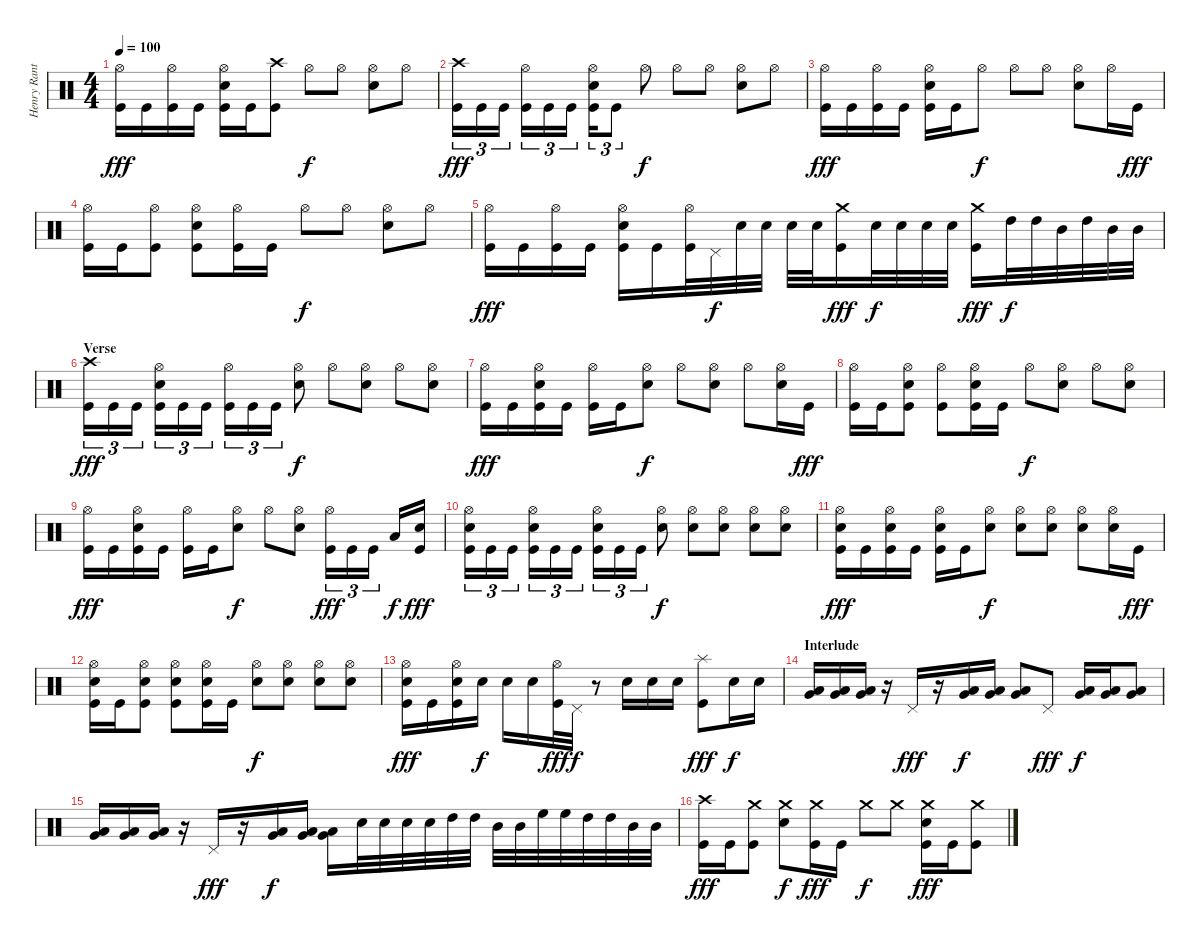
\track ("Henry Ranta" "Henry Rant") {instrument percussion}
\staff {score}
\articulation defaults
\ts (4 4)
\tempo 100
\clef neutral
\ks c
("Hi-Hat (open)" "Kick (hit)").16{dy fff} "Kick (hit)".16 ("Hi-Hat (open)" "Kick (hit)").16 "Kick (hit)".16 ("Hi-Hat (open)" "Electric Snare (hit)" "Kick (hit)").16 "Kick (hit)".16 ("Crash high (hit)" "Kick (hit)").8 "Hi-Hat (open)".8{dy f} "Hi-Hat (open)".8 ("Hi-Hat (open)" "Electric Snare (hit)").8 "Hi-Hat (open)".8 |
("Crash high (hit)" "Kick (hit)").16{tu (3 2) dy fff} "Kick (hit)".16{tu (3 2)} "Kick (hit)".16{tu (3 2)} ("Hi-Hat (open)" "Kick (hit)").16{tu (3 2)} "Kick (hit)".16{tu (3 2)} "Kick (hit)".16{tu (3 2)} ("Hi-Hat (open)" "Electric Snare (hit)" "Kick (hit)").16{tu (3 2)} "Kick (hit)".8{tu (3 2)} "Hi-Hat (open)".8{dy f} "Hi-Hat (open)".8 "Hi-Hat (open)".8 ("Hi-Hat (open)" "Electric Snare (hit)").8 "Hi-Hat (open)".8 |
("Hi-Hat (open)" "Kick (hit)").16{dy fff} "Kick (hit)".16 ("Hi-Hat (open)" "Kick (hit)").16 "Kick (hit)".16 ("Hi-Hat (open)" "Electric Snare (hit)" "Kick (hit)").16 "Kick (hit)".16 "Hi-Hat (open)".8{dy f} "Hi-Hat (open)".8 "Hi-Hat (open)".8 ("Hi-Hat (open)" "Electric Snare (hit)").8 "Hi-Hat (open)".16 "Kick (hit)".16{dy fff} |
("Hi-Hat (open)" "Kick (hit)").16 "Kick (hit)".16 ("Hi-Hat (open)" "Kick (hit)").8 ("Hi-Hat (open)" "Electric Snare (hit)" "Kick (hit)").8 ("Hi-Hat (open)" "Kick (hit)").16 "Kick (hit)".16 "Hi-Hat (open)".8{dy f} "Hi-Hat (open)".8 ("Hi-Hat (open)" "Electric Snare (hit)").8 "Hi-Hat (open)".8 |
("Hi-Hat (open)" "Kick (hit)").16{dy fff} "Kick (hit)".16 ("Hi-Hat (open)" "Kick (hit)").16 "Kick (hit)".16 ("Hi-Hat (open)" "Electric Snare (hit)" "Kick (hit)").16 "Kick (hit)".16 ("Hi-Hat (open)" "Kick (hit)").32 "Pedal Hi-Hat (hit)".32{dy f} "Electric Snare (hit)".32 "Electric Snare (hit)".32 "Electric Snare (hit)".32 "Electric Snare (hit)".32 ("Crash medium (hit)" "Kick (hit)").16{dy fff} "Electric Snare (hit)".32{dy f} "Electric Snare (hit)".32 "Electric Snare (hit)".32 "Electric Snare (hit)".32 ("Crash medium (hit)" "Kick (hit)").16{dy fff} "High Tom (hit)".32{dy f} "High Tom (hit)".32 "Mid Tom (hit)".32 "High Tom (hit)".32 "Mid Tom (hit)".32 "Mid Tom (hit)".32 |
\section ("" "Verse")
("Crash high (hit)" "Kick (hit)").16{tu (3 2) dy fff} "Kick (hit)".16{tu (3 2)} "Kick (hit)".16{tu (3 2)} ("Hi-Hat (open)" "Electric Snare (hit)" "Kick (hit)").16{tu (3 2)} "Kick (hit)".16{tu (3 2)} "Kick (hit)".16{tu (3 2)} ("Hi-Hat (open)" "Kick (hit)").16{tu (3 2)} "Kick (hit)".16{tu (3 2)} "Kick (hit)".16{tu (3 2)} ("Hi-Hat (open)" "Electric Snare (hit)").8{dy f} "Hi-Hat (open)".8 ("Hi-Hat (open)" "Electric Snare (hit)").8 "Hi-Hat (open)".8 ("Hi-Hat (open)" "Electric Snare (hit)").8 |
("Hi-Hat (open)" "Kick (hit)").16{dy fff} "Kick (hit)".16 ("Hi-Hat (open)" "Electric Snare (hit)" "Kick (hit)").16 "Kick (hit)".16 ("Hi-Hat (open)" "Kick (hit)").16 "Kick (hit)".16 ("Hi-Hat (open)" "Electric Snare (hit)").8{dy f} "Hi-Hat (open)".8 ("Hi-Hat (open)" "Electric Snare (hit)").8 "Hi-Hat (open)".8 ("Hi-Hat (open)" "Electric Snare (hit)").16 "Kick (hit)".16{dy fff} |
("Hi-Hat (open)" "Kick (hit)").16 "Kick (hit)".16 ("Hi-Hat (open)" "Electric Snare (hit)" "Kick (hit)").8 ("Hi-Hat (open)" "Kick (hit)").8 ("Hi-Hat (open)" "Electric Snare (hit)" "Kick (hit)").16 "Kick (hit)".16 "Hi-Hat (open)".8{dy f} ("Hi-Hat (open)" "Electric Snare (hit)").8 "Hi-Hat (open)".8 ("Hi-Hat (open)" "Electric Snare (hit)").8 |
("Hi-Hat (open)" "Kick (hit)").16{dy fff} "Kick (hit)".16 ("Hi-Hat (open)" "Electric Snare (hit)" "Kick (hit)").16 "Kick (hit)".16 ("Hi-Hat (open)" "Kick (hit)").16 "Kick (hit)".16 ("Hi-Hat (open)" "Electric Snare (hit)").8{dy f} "Hi-Hat (open)".8 ("Hi-Hat (open)" "Electric Snare (hit)").8 ("Hi-Hat (open)" "Kick (hit)").16{tu (3 2) dy fff} "Kick (hit)".16{tu (3 2)} "Kick (hit)".16{tu (3 2)} "Low Floor Tom (hit)".16{dy f} ("Electric Snare (hit)" "Kick (hit)").16{dy fff} |
("Hi-Hat (open)" "Electric Snare (hit)" "Kick (hit)").16{tu (3 2)} "Kick (hit)".16{tu (3 2)} "Kick (hit)".16{tu (3 2)} ("Hi-Hat (open)" "Electric Snare (hit)" "Kick (hit)").16{tu (3 2)} "Kick (hit)".16{tu (3 2)} "Kick (hit)".16{tu (3 2)} ("Hi-Hat (open)" "Electric Snare (hit)" "Kick (hit)").16{tu (3 2)} "Kick (hit)".16{tu (3 2)} "Kick (hit)".16{tu (3 2)} ("Hi-Hat (open)" "Electric Snare (hit)").8{dy f} ("Hi-Hat (open)" "Electric Snare (hit)").8 ("Hi-Hat (open)" "Electric Snare (hit)").8 ("Hi-Hat (open)" "Electric Snare (hit)").8 ("Hi-Hat (open)" "Electric Snare (hit)").8 |
("Hi-Hat (open)" "Electric Snare (hit)" "Kick (hit)").16{dy fff} "Kick (hit)".16 ("Hi-Hat (open)" "Electric Snare (hit)" "Kick (hit)").16 "Kick (hit)".16 ("Hi-Hat (open)" "Electric Snare (hit)" "Kick (hit)").16 "Kick (hit)".16 ("Hi-Hat (open)" "Electric Snare (hit)").8{dy f} ("Hi-Hat (open)" "Electric Snare (hit)").8 ("Hi-Hat (open)" "Electric Snare (hit)").8 ("Hi-Hat (open)" "Electric Snare (hit)").8 ("Hi-Hat (open)" "Electric Snare (hit)").16 "Kick (hit)".16{dy fff} |
("Hi-Hat (open)" "Electric Snare (hit)" "Kick (hit)").16 "Kick (hit)".16 ("Hi-Hat (open)" "Electric Snare (hit)" "Kick (hit)").8 ("Hi-Hat (open)" "Electric Snare (hit)" "Kick (hit)").8 ("Hi-Hat (open)" "Electric Snare (hit)" "Kick (hit)").16 "Kick (hit)".16 ("Hi-Hat (open)" "Electric Snare (hit)").8{dy f} ("Hi-Hat (open)" "Electric Snare (hit)").8 ("Hi-Hat (open)" "Electric Snare (hit)").8 ("Hi-Hat (open)" "Electric Snare (hit)").8 |
("Hi-Hat (open)" "Electric Snare (hit)" "Kick (hit)").16{dy fff} "Kick (hit)".16 ("Hi-Hat (open)" "Electric Snare (hit)" "Kick (hit)").16 "Electric Snare (hit)".16{dy f} "Electric Snare (hit)".16 "Electric Snare (hit)".16 ("Hi-Hat (open)" "Kick (hit)").32{dy fff} "Pedal Hi-Hat (hit)".32{dy f} r.8 "Electric Snare (hit)".16 "Electric Snare (hit)".16 "Electric Snare (hit)".16 ("Splash (hit)" "Kick (hit)").8{dy fff} "Electric Snare (hit)".16{dy f} "Electric Snare (hit)".16 |
\section ("" "Interlude")
("Very Low Tom (hit)" "Low Floor Tom (hit)").16 ("Very Low Tom (hit)" "Low Floor Tom (hit)").16 ("Very Low Tom (hit)" "Low Floor Tom (hit)").16 r.16 "Pedal Hi-Hat (hit)".16{dy fff} r.16 ("Very Low Tom (hit)" "Low Floor Tom (hit)").16{dy f} ("Very Low Tom (hit)" "Low Floor Tom (hit)").16 ("Very Low Tom (hit)" "Low Floor Tom (hit)").8 "Pedal Hi-Hat (hit)".8{dy fff} ("Very Low Tom (hit)" "Low Floor Tom (hit)").16{dy f} ("Very Low Tom (hit)" "Low Floor Tom (hit)").16 ("Very Low Tom (hit)" "Low Floor Tom (hit)").8 |
("Very Low Tom (hit)" "Low Floor Tom (hit)").16 ("Very Low Tom (hit)" "Low Floor Tom (hit)").16 ("Very Low Tom (hit)" "Low Floor Tom (hit)").16 r.16 "Pedal Hi-Hat (hit)".16{dy fff} r.16 ("Very Low Tom (hit)" "Low Floor Tom (hit)").16{dy f} ("Very Low Tom (hit)" "Low Floor Tom (hit)").16 ("Very Low Tom (hit)" "Low Floor Tom (hit)").16 "Electric Snare (hit)".32 "Electric Snare (hit)".32 "Electric Snare (hit)".32 "Electric Snare (hit)".32 "High Tom (hit)".32 "High Tom (hit)".32 "Mid Tom (hit)".32 "Mid Tom (hit)".32 "High Floor Tom (hit)".32 "High Floor Tom (hit)".32 "High Tom (hit)".32 "High Tom (hit)".32 "Mid Tom (hit)".32 "Mid Tom (hit)".32 |
("Crash high (hit)" "Kick (hit)").16{dy fff} "Kick (hit)".16 ("Crash medium (hit)" "Kick (hit)").8 ("Crash medium (hit)" "Electric Snare (hit)").8{dy f} ("Crash medium (hit)" "Kick (hit)").16{dy fff} "Kick (hit)".16 "Crash medium (hit)".8{dy f} "Crash medium (hit)".8 ("Crash medium (hit)" "Electric Snare (hit)" "Kick (hit)").16{dy fff} "Kick (hit)".16 ("Crash medium (hit)" "Kick (hit)").8
